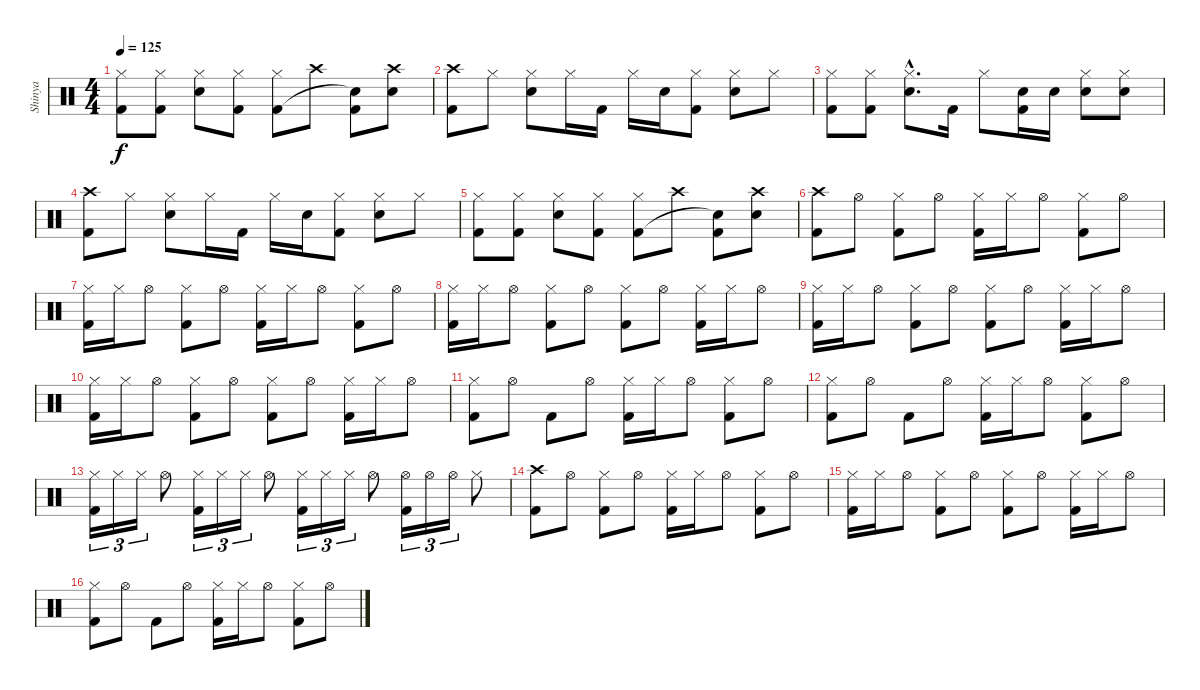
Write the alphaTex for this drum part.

\track ("Shinya" "Shinya") {instrument percussion}
\staff {score}
\articulation defaults
\ts (4 4)
\tempo 125
\clef neutral
\ks c
("Hi-Hat (closed)" "Kick (hit) 2").8{dy f} ("Hi-Hat (closed)" "Kick (hit) 2").8 ("Hi-Hat (closed)" "Snare (hit) 2").8 ("Hi-Hat (closed)" "Kick (hit) 2").8 ("Hi-Hat (closed)" "Kick (hit) 2").8 "Crash high (hit)".8 ("Kick (hit) 2" "Snare (hit)"{t}).8 ("Snare (hit) 2" "Crash high (hit)").8 |
("Kick (hit) 2" "Crash high (hit)").8 "Hi-Hat (closed)".8 ("Hi-Hat (closed)" "Snare (hit) 2").8 "Hi-Hat (closed)".16 "Kick (hit) 2".16 "Hi-Hat (closed)".16 "Snare (hit) 2".16 ("Hi-Hat (closed)" "Kick (hit) 2").8 ("Hi-Hat (closed)" "Snare (hit) 2").8 "Hi-Hat (closed)".8 |
("Hi-Hat (closed)" "Kick (hit) 2").8 ("Hi-Hat (closed)" "Kick (hit) 2").8 ("Hi-Hat (closed)"{hac} "Snare (hit) 2"{hac}).8{d} "Kick (hit) 2".16 "Hi-Hat (closed)".8 ("Snare (hit) 2" "Kick (hit) 2").16 "Snare (hit) 2".16 ("Hi-Hat (closed)" "Snare (hit) 2").8 ("Hi-Hat (closed)" "Snare (hit) 2").8 |
("Kick (hit) 2" "Crash high (hit)").8 "Hi-Hat (closed)".8 ("Hi-Hat (closed)" "Snare (hit) 2").8 "Hi-Hat (closed)".16 "Kick (hit) 2".16 "Hi-Hat (closed)".16 "Snare (hit) 2".16 ("Hi-Hat (closed)" "Kick (hit) 2").8 ("Hi-Hat (closed)" "Snare (hit) 2").8 "Hi-Hat (closed)".8 |
("Hi-Hat (closed)" "Kick (hit) 2").8 ("Hi-Hat (closed)" "Kick (hit) 2").8 ("Hi-Hat (closed)" "Snare (hit) 2").8 ("Hi-Hat (closed)" "Kick (hit) 2").8 ("Hi-Hat (closed)" "Kick (hit) 2").8 "Crash high (hit)".8 ("Kick (hit) 2" "Snare (hit)"{t}).8 ("Snare (hit) 2" "Crash high (hit)").8 |
("Crash high (hit)" "Kick (hit) 2").8 "Hi-Hat (open)".8 ("Hi-Hat (closed)" "Kick (hit) 2").8 "Hi-Hat (open)".8 ("Hi-Hat (closed)" "Kick (hit) 2").16 "Hi-Hat (closed)".16 "Hi-Hat (open)".8 ("Hi-Hat (closed)" "Kick (hit) 2").8 "Hi-Hat (open)".8 |
("Hi-Hat (closed)" "Kick (hit) 2").16 "Hi-Hat (closed)".16 "Hi-Hat (open)".8 ("Hi-Hat (closed)" "Kick (hit) 2").8 "Hi-Hat (open)".8 ("Hi-Hat (closed)" "Kick (hit) 2").16 "Hi-Hat (closed)".16 "Hi-Hat (open)".8 ("Hi-Hat (closed)" "Kick (hit) 2").8 "Hi-Hat (open)".8 |
("Hi-Hat (closed)" "Kick (hit) 2").16 "Hi-Hat (closed)".16 "Hi-Hat (open)".8 ("Hi-Hat (closed)" "Kick (hit) 2").8 "Hi-Hat (open)".8 ("Hi-Hat (closed)" "Kick (hit) 2").8 "Hi-Hat (open)".8 ("Hi-Hat (closed)" "Kick (hit) 2").16 "Hi-Hat (closed)".16 "Hi-Hat (open)".8 |
("Hi-Hat (closed)" "Kick (hit) 2").16 "Hi-Hat (closed)".16 "Hi-Hat (open)".8 ("Hi-Hat (closed)" "Kick (hit) 2").8 "Hi-Hat (open)".8 ("Hi-Hat (closed)" "Kick (hit) 2").8 "Hi-Hat (open)".8 ("Hi-Hat (closed)" "Kick (hit) 2").16 "Hi-Hat (closed)".16 "Hi-Hat (open)".8 |
("Hi-Hat (closed)" "Kick (hit) 2").16 "Hi-Hat (closed)".16 "Hi-Hat (open)".8 ("Hi-Hat (closed)" "Kick (hit) 2").8 "Hi-Hat (open)".8 ("Hi-Hat (closed)" "Kick (hit) 2").8 "Hi-Hat (open)".8 ("Hi-Hat (closed)" "Kick (hit) 2").16 "Hi-Hat (closed)".16 "Hi-Hat (open)".8 |
("Hi-Hat (closed)" "Kick (hit) 2").8 "Hi-Hat (open)".8 "Kick (hit) 2".8 "Hi-Hat (open)".8 ("Hi-Hat (closed)" "Kick (hit) 2").16 "Hi-Hat (closed)".16 "Hi-Hat (open)".8 ("Hi-Hat (closed)" "Kick (hit) 2").8 "Hi-Hat (open)".8 |
("Hi-Hat (closed)" "Kick (hit) 2").8 "Hi-Hat (open)".8 "Kick (hit) 2".8 "Hi-Hat (open)".8 ("Hi-Hat (closed)" "Kick (hit) 2").16 "Hi-Hat (closed)".16 "Hi-Hat (open)".8 ("Hi-Hat (closed)" "Kick (hit) 2").8 "Hi-Hat (open)".8 |
("Hi-Hat (closed)" "Kick (hit) 2").16{tu (3 2)} "Hi-Hat (closed)".16{tu (3 2)} "Hi-Hat (closed)".16{tu (3 2)} "Hi-Hat (open)".8 ("Hi-Hat (closed)" "Kick (hit) 2").16{tu (3 2)} "Hi-Hat (closed)".16{tu (3 2)} "Hi-Hat (closed)".16{tu (3 2)} "Hi-Hat (open)".8 ("Hi-Hat (closed)" "Kick (hit) 2").16{tu (3 2)} "Hi-Hat (closed)".16{tu (3 2)} "Hi-Hat (closed)".16{tu (3 2)} "Hi-Hat (open)".8 ("Hi-Hat (open)" "Kick (hit) 2").16{tu (3 2)} "Hi-Hat (open)".16{tu (3 2)} "Hi-Hat (open)".16{tu (3 2)} "Hi-Hat (closed)".8 |
("Crash high (hit)" "Kick (hit) 2").8 "Hi-Hat (open)".8 ("Hi-Hat (closed)" "Kick (hit) 2").8 "Hi-Hat (open)".8 ("Hi-Hat (closed)" "Kick (hit) 2").16 "Hi-Hat (closed)".16 "Hi-Hat (open)".8 ("Hi-Hat (closed)" "Kick (hit) 2").8 "Hi-Hat (open)".8 |
("Hi-Hat (closed)" "Kick (hit) 2").16 "Hi-Hat (closed)".16 "Hi-Hat (open)".8 ("Hi-Hat (closed)" "Kick (hit) 2").8 "Hi-Hat (open)".8 ("Hi-Hat (closed)" "Kick (hit) 2").8 "Hi-Hat (open)".8 ("Hi-Hat (closed)" "Kick (hit) 2").16 "Hi-Hat (closed)".16 "Hi-Hat (open)".8 |
("Hi-Hat (closed)" "Kick (hit) 2").8 "Hi-Hat (open)".8 "Kick (hit) 2".8 "Hi-Hat (open)".8 ("Hi-Hat (closed)" "Kick (hit) 2").16 "Hi-Hat (closed)".16 "Hi-Hat (open)".8 ("Hi-Hat (closed)" "Kick (hit) 2").8 "Hi-Hat (open)".8
